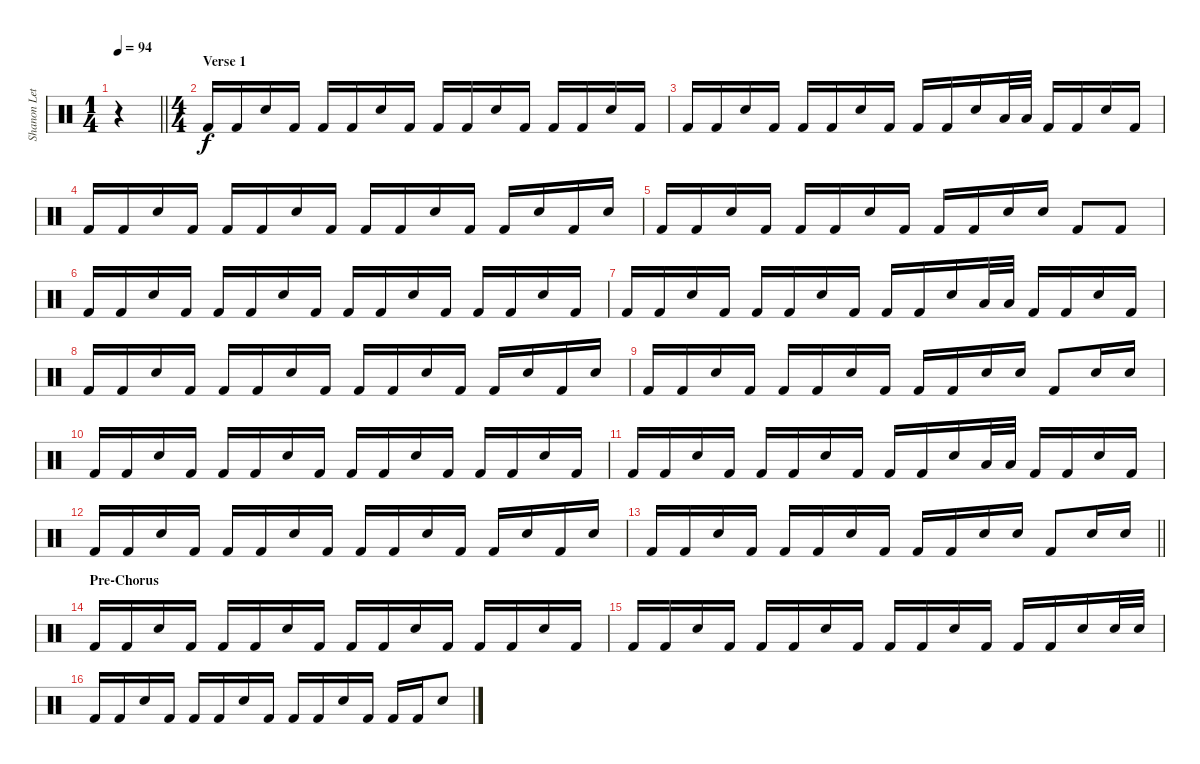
\track ("Shanon Leto" "Shanon Let") {instrument percussion}
\staff {score}
\articulation defaults
\ts (1 4)
\tempo 94
\clef neutral
\barLineRight lightlight
\ks c
r.4{dy f} |
\ts (4 4)
\section ("" "Verse 1")
"Kick (hit) 2".16 "Kick (hit) 2".16 "Snare (hit) 2".16 "Kick (hit) 2".16 "Kick (hit) 2".16 "Kick (hit) 2".16 "Snare (hit) 2".16 "Kick (hit) 2".16 "Kick (hit) 2".16 "Kick (hit) 2".16 "Snare (hit) 2".16 "Kick (hit) 2".16 "Kick (hit) 2".16 "Kick (hit) 2".16 "Snare (hit) 2".16 "Kick (hit) 2".16 |
"Kick (hit) 2".16 "Kick (hit) 2".16 "Snare (hit) 2".16 "Kick (hit) 2".16 "Kick (hit) 2".16 "Kick (hit) 2".16 "Snare (hit) 2".16 "Kick (hit) 2".16 "Kick (hit) 2".16 "Kick (hit) 2".16 "Snare (hit) 2".16 "Low Tom (hit)".32 "Low Tom (hit)".32 "Kick (hit) 2".16 "Kick (hit) 2".16 "Snare (hit) 2".16 "Kick (hit) 2".16 |
"Kick (hit) 2".16 "Kick (hit) 2".16 "Snare (hit) 2".16 "Kick (hit) 2".16 "Kick (hit) 2".16 "Kick (hit) 2".16 "Snare (hit) 2".16 "Kick (hit) 2".16 "Kick (hit) 2".16 "Kick (hit) 2".16 "Snare (hit) 2".16 "Kick (hit) 2".16 "Kick (hit) 2".16 "Snare (hit) 2".16 "Kick (hit) 2".16 "Snare (hit) 2".16 |
"Kick (hit) 2".16 "Kick (hit) 2".16 "Snare (hit) 2".16 "Kick (hit) 2".16 "Kick (hit) 2".16 "Kick (hit) 2".16 "Snare (hit) 2".16 "Kick (hit) 2".16 "Kick (hit) 2".16 "Kick (hit) 2".16 "Snare (hit) 2".16 "Snare (hit) 2".16 "Kick (hit) 2".8 "Kick (hit) 2".8 |
"Kick (hit) 2".16 "Kick (hit) 2".16 "Snare (hit) 2".16 "Kick (hit) 2".16 "Kick (hit) 2".16 "Kick (hit) 2".16 "Snare (hit) 2".16 "Kick (hit) 2".16 "Kick (hit) 2".16 "Kick (hit) 2".16 "Snare (hit) 2".16 "Kick (hit) 2".16 "Kick (hit) 2".16 "Kick (hit) 2".16 "Snare (hit) 2".16 "Kick (hit) 2".16 |
"Kick (hit) 2".16 "Kick (hit) 2".16 "Snare (hit) 2".16 "Kick (hit) 2".16 "Kick (hit) 2".16 "Kick (hit) 2".16 "Snare (hit) 2".16 "Kick (hit) 2".16 "Kick (hit) 2".16 "Kick (hit) 2".16 "Snare (hit) 2".16 "Low Tom (hit)".32 "Low Tom (hit)".32 "Kick (hit) 2".16 "Kick (hit) 2".16 "Snare (hit) 2".16 "Kick (hit) 2".16 |
"Kick (hit) 2".16 "Kick (hit) 2".16 "Snare (hit) 2".16 "Kick (hit) 2".16 "Kick (hit) 2".16 "Kick (hit) 2".16 "Snare (hit) 2".16 "Kick (hit) 2".16 "Kick (hit) 2".16 "Kick (hit) 2".16 "Snare (hit) 2".16 "Kick (hit) 2".16 "Kick (hit) 2".16 "Snare (hit) 2".16 "Kick (hit) 2".16 "Snare (hit) 2".16 |
"Kick (hit) 2".16 "Kick (hit) 2".16 "Snare (hit) 2".16 "Kick (hit) 2".16 "Kick (hit) 2".16 "Kick (hit) 2".16 "Snare (hit) 2".16 "Kick (hit) 2".16 "Kick (hit) 2".16 "Kick (hit) 2".16 "Snare (hit) 2".16 "Snare (hit) 2".16 "Kick (hit) 2".8 "Snare (hit) 2".16 "Snare (hit) 2".16 |
"Kick (hit) 2".16 "Kick (hit) 2".16 "Snare (hit) 2".16 "Kick (hit) 2".16 "Kick (hit) 2".16 "Kick (hit) 2".16 "Snare (hit) 2".16 "Kick (hit) 2".16 "Kick (hit) 2".16 "Kick (hit) 2".16 "Snare (hit) 2".16 "Kick (hit) 2".16 "Kick (hit) 2".16 "Kick (hit) 2".16 "Snare (hit) 2".16 "Kick (hit) 2".16 |
"Kick (hit) 2".16 "Kick (hit) 2".16 "Snare (hit) 2".16 "Kick (hit) 2".16 "Kick (hit) 2".16 "Kick (hit) 2".16 "Snare (hit) 2".16 "Kick (hit) 2".16 "Kick (hit) 2".16 "Kick (hit) 2".16 "Snare (hit) 2".16 "Low Tom (hit)".32 "Low Tom (hit)".32 "Kick (hit) 2".16 "Kick (hit) 2".16 "Snare (hit) 2".16 "Kick (hit) 2".16 |
"Kick (hit) 2".16 "Kick (hit) 2".16 "Snare (hit) 2".16 "Kick (hit) 2".16 "Kick (hit) 2".16 "Kick (hit) 2".16 "Snare (hit) 2".16 "Kick (hit) 2".16 "Kick (hit) 2".16 "Kick (hit) 2".16 "Snare (hit) 2".16 "Kick (hit) 2".16 "Kick (hit) 2".16 "Snare (hit) 2".16 "Kick (hit) 2".16 "Snare (hit) 2".16 |
\barLineRight lightlight "Kick (hit) 2".16 "Kick (hit) 2".16 "Snare (hit) 2".16 "Kick (hit) 2".16 "Kick (hit) 2".16 "Kick (hit) 2".16 "Snare (hit) 2".16 "Kick (hit) 2".16 "Kick (hit) 2".16 "Kick (hit) 2".16 "Snare (hit) 2".16 "Snare (hit) 2".16 "Kick (hit) 2".8 "Snare (hit) 2".16 "Snare (hit) 2".16
|
\section ("" "Pre-Chorus")
"Kick (hit) 2".16 "Kick (hit) 2".16 "Snare (hit) 2".16 "Kick (hit) 2".16 "Kick (hit) 2".16 "Kick (hit) 2".16 "Snare (hit) 2".16 "Kick (hit) 2".16 "Kick (hit) 2".16 "Kick (hit) 2".16 "Snare (hit) 2".16 "Kick (hit) 2".16 "Kick (hit) 2".16 "Kick (hit) 2".16 "Snare (hit) 2".16 "Kick (hit) 2".16 |
"Kick (hit) 2".16 "Kick (hit) 2".16 "Snare (hit) 2".16 "Kick (hit) 2".16 "Kick (hit) 2".16 "Kick (hit) 2".16 "Snare (hit) 2".16 "Kick (hit) 2".16 "Kick (hit) 2".16 "Kick (hit) 2".16 "Snare (hit) 2".16 "Kick (hit) 2".16 "Kick (hit) 2".16 "Kick (hit) 2".16 "Snare (hit) 2".16 "Snare (hit) 2".32 "Snare (hit) 2".32 |
"Kick (hit) 2".16 "Kick (hit) 2".16 "Snare (hit) 2".16 "Kick (hit) 2".16 "Kick (hit) 2".16 "Kick (hit) 2".16 "Snare (hit) 2".16 "Kick (hit) 2".16 "Kick (hit) 2".16 "Kick (hit) 2".16 "Snare (hit) 2".16 "Kick (hit) 2".16 "Kick (hit) 2".16 "Kick (hit) 2".16 "Snare (hit) 2".8
